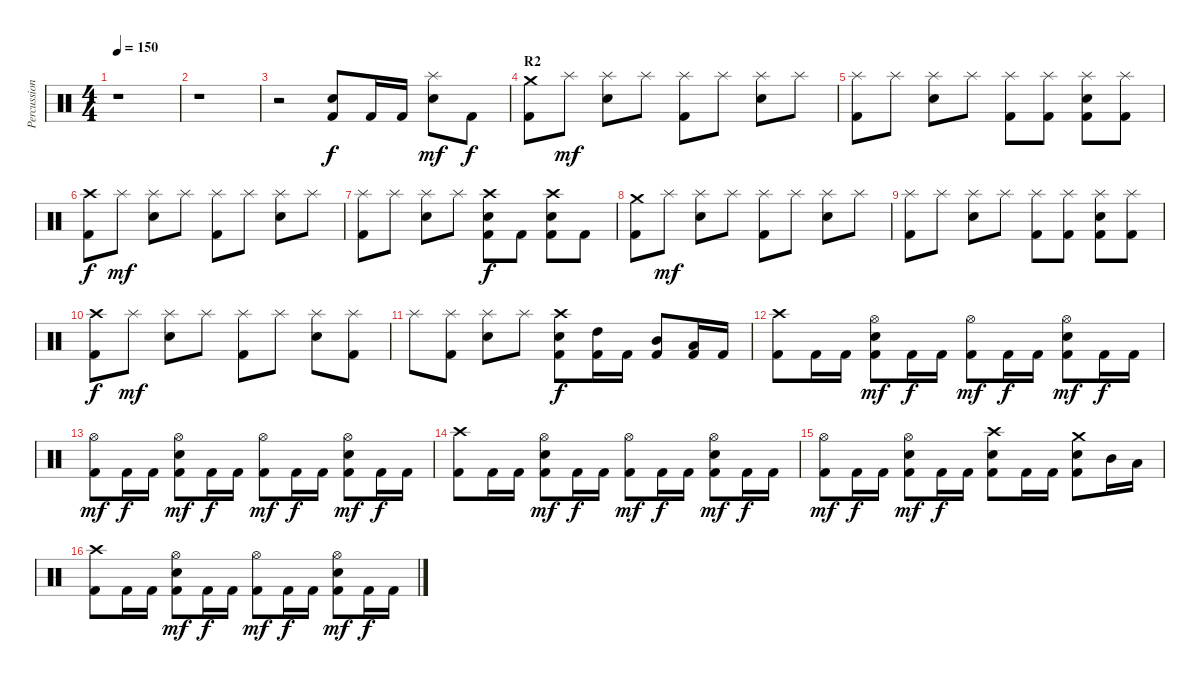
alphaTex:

\track ("Percussion" "Percussion") {instrument percussion}
\staff {score}
\articulation defaults
\ts (4 4)
\tempo 150
\clef neutral
\ks c
r.1{dy f} |
r.1 |
r.2 ("Electric Snare (hit)" "Kick (hit) 2").8 "Kick (hit) 2".16 "Kick (hit) 2".16 ("Splash (hit)" "Electric Snare (hit)").8{dy mf} "Kick (hit) 2".8{dy f} |
\section ("" "R2")
("Crash medium (hit)" "Kick (hit) 2").8 "Splash (hit)".8{dy mf} ("Splash (hit)" "Electric Snare (hit)").8 "Splash (hit)".8 ("Splash (hit)" "Kick (hit) 2").8 "Splash (hit)".8 ("Splash (hit)" "Electric Snare (hit)").8 "Splash (hit)".8 |
("Splash (hit)" "Kick (hit) 2").8 "Splash (hit)".8 ("Splash (hit)" "Electric Snare (hit)").8 "Splash (hit)".8 ("Splash (hit)" "Kick (hit) 2").8 ("Splash (hit)" "Kick (hit) 2").8 ("Splash (hit)" "Electric Snare (hit)" "Kick (hit) 2").8 ("Splash (hit)" "Kick (hit) 2").8 |
("Crash high (hit)" "Kick (hit) 2").8{dy f} "Splash (hit)".8{dy mf} ("Splash (hit)" "Electric Snare (hit)").8 "Splash (hit)".8 ("Splash (hit)" "Kick (hit) 2").8 "Splash (hit)".8 ("Splash (hit)" "Electric Snare (hit)").8 "Splash (hit)".8 |
("Splash (hit)" "Kick (hit) 2").8 "Splash (hit)".8 ("Splash (hit)" "Electric Snare (hit)").8 "Splash (hit)".8 ("Crash high (hit)" "Electric Snare (hit)" "Kick (hit) 2").8{dy f} "Kick (hit) 2".8 ("Crash high (hit)" "Electric Snare (hit)" "Kick (hit) 2").8 "Kick (hit) 2".8 |
("Crash medium (hit)" "Kick (hit) 2").8 "Splash (hit)".8{dy mf} ("Splash (hit)" "Electric Snare (hit)").8 "Splash (hit)".8 ("Splash (hit)" "Kick (hit) 2").8 "Splash (hit)".8 ("Splash (hit)" "Electric Snare (hit)").8 "Splash (hit)".8 |
("Splash (hit)" "Kick (hit) 2").8 "Splash (hit)".8 ("Splash (hit)" "Electric Snare (hit)").8 "Splash (hit)".8 ("Splash (hit)" "Kick (hit) 2").8 ("Splash (hit)" "Kick (hit) 2").8 ("Splash (hit)" "Electric Snare (hit)" "Kick (hit) 2").8 ("Splash (hit)" "Kick (hit) 2").8 |
("Crash high (hit)" "Kick (hit) 2").8{dy f} "Splash (hit)".8{dy mf} ("Splash (hit)" "Electric Snare (hit)").8 "Splash (hit)".8 ("Splash (hit)" "Kick (hit) 2").8 "Splash (hit)".8 ("Splash (hit)" "Electric Snare (hit)").8 ("Splash (hit)" "Kick (hit) 2").8 |
"Splash (hit)".8 ("Splash (hit)" "Kick (hit) 2").8 ("Splash (hit)" "Electric Snare (hit)").8 "Splash (hit)".8 ("Crash high (hit)" "Electric Snare (hit)" "Kick (hit) 2").8{dy f} ("High Tom (hit)" "Kick (hit) 2").16 "Kick (hit) 2".16 ("Mid Tom (hit)" "Kick (hit) 2").8 ("Low Tom (hit)" "Kick (hit) 2").16 "Kick (hit) 2".16 |
\section ("" "")
("Crash high (hit)" "Kick (hit) 2").8 "Kick (hit) 2".16 "Kick (hit) 2".16 ("Hi-Hat (open)" "Electric Snare (hit)" "Kick (hit) 2").8{dy mf} "Kick (hit) 2".16{dy f} "Kick (hit) 2".16 ("Hi-Hat (open)" "Kick (hit) 2").8{dy mf} "Kick (hit) 2".16{dy f} "Kick (hit) 2".16 ("Hi-Hat (open)" "Electric Snare (hit)" "Kick (hit) 2").8{dy mf} "Kick (hit) 2".16{dy f} "Kick (hit) 2".16 |
("Hi-Hat (open)" "Kick (hit) 2").8{dy mf} "Kick (hit) 2".16{dy f} "Kick (hit) 2".16 ("Hi-Hat (open)" "Electric Snare (hit)" "Kick (hit) 2").8{dy mf} "Kick (hit) 2".16{dy f} "Kick (hit) 2".16 ("Hi-Hat (open)" "Kick (hit) 2").8{dy mf} "Kick (hit) 2".16{dy f} "Kick (hit) 2".16 ("Hi-Hat (open)" "Electric Snare (hit)" "Kick (hit) 2").8{dy mf} "Kick (hit) 2".16{dy f} "Kick (hit) 2".16 |
("Crash high (hit)" "Kick (hit) 2").8 "Kick (hit) 2".16 "Kick (hit) 2".16 ("Hi-Hat (open)" "Electric Snare (hit)" "Kick (hit) 2").8{dy mf} "Kick (hit) 2".16{dy f} "Kick (hit) 2".16 ("Hi-Hat (open)" "Kick (hit) 2").8{dy mf} "Kick (hit) 2".16{dy f} "Kick (hit) 2".16 ("Hi-Hat (open)" "Electric Snare (hit)" "Kick (hit) 2").8{dy mf} "Kick (hit) 2".16{dy f} "Kick (hit) 2".16 |
("Hi-Hat (open)" "Kick (hit) 2").8{dy mf} "Kick (hit) 2".16{dy f} "Kick (hit) 2".16 ("Hi-Hat (open)" "Electric Snare (hit)" "Kick (hit) 2").8{dy mf} "Kick (hit) 2".16{dy f} "Kick (hit) 2".16 ("Crash high (hit)" "Electric Snare (hit)" "Kick (hit) 2").8 "Kick (hit) 2".16 "Kick (hit) 2".16 ("Crash medium (hit)" "Electric Snare (hit)" "Kick (hit) 2").8 "Mid Tom (hit)".16 "Low Tom (hit)".16 |
("Crash high (hit)" "Kick (hit) 2").8 "Kick (hit) 2".16 "Kick (hit) 2".16 ("Hi-Hat (open)" "Electric Snare (hit)" "Kick (hit) 2").8{dy mf} "Kick (hit) 2".16{dy f} "Kick (hit) 2".16 ("Hi-Hat (open)" "Kick (hit) 2").8{dy mf} "Kick (hit) 2".16{dy f} "Kick (hit) 2".16 ("Hi-Hat (open)" "Electric Snare (hit)" "Kick (hit) 2").8{dy mf} "Kick (hit) 2".16{dy f} "Kick (hit) 2".16
